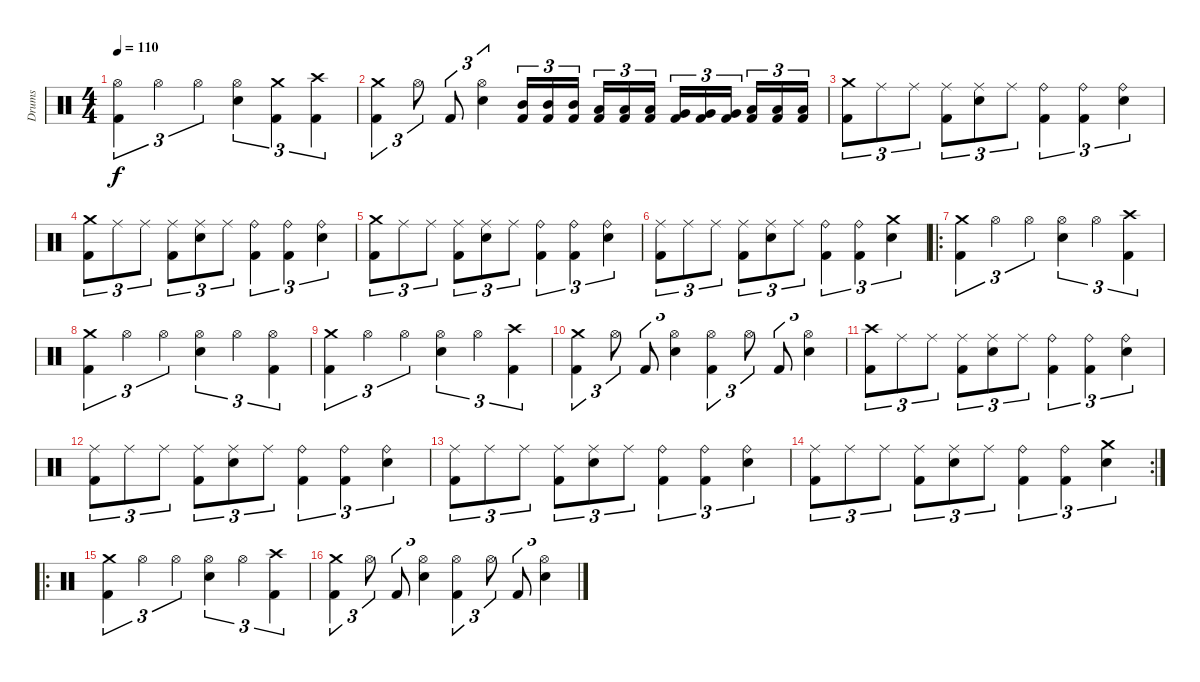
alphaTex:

\track ("Drums" "Drums") {instrument percussion}
\staff {score}
\articulation defaults
\ts (4 4)
\tempo 110
\clef neutral
\ks c
("Kick (hit) 2" "Hi-Hat (open)").4{tu (3 2) dy f} "Hi-Hat (open)".4{tu (3 2)} "Hi-Hat (open)".4{tu (3 2)} ("Electric Snare (hit)" "Hi-Hat (open)").4{tu (3 2)} ("Kick (hit) 2" "Crash medium (hit)").4{tu (3 2)} ("Kick (hit) 2" "Crash high (hit)").4{tu (3 2)} |
("Kick (hit) 2" "Crash medium (hit)").4{tu (3 2)} "Hi-Hat (open)".8{tu (3 2)} "Kick (hit) 2".8{tu (3 2)} ("Electric Snare (hit)" "Hi-Hat (open)").4{tu (3 2)} ("Kick (hit) 2" "Mid Tom (hit)").16{tu (3 2)} ("Kick (hit) 2" "Mid Tom (hit)").16{tu (3 2)} ("Kick (hit) 2" "Mid Tom (hit)").16{tu (3 2)} ("Kick (hit) 2" "Low Tom (hit)").16{tu (3 2)} ("Kick (hit) 2" "Low Tom (hit)").16{tu (3 2)} ("Kick (hit) 2" "Low Tom (hit)").16{tu (3 2)} ("Kick (hit) 2" "Very Low Tom (hit)").16{tu (3 2)} ("Kick (hit) 2" "Very Low Tom (hit)").16{tu (3 2)} ("Kick (hit) 2" "Very Low Tom (hit)").16{tu (3 2)} ("Kick (hit) 2" "Low Floor Tom (hit)").16{tu (3 2)} ("Kick (hit) 2" "Low Floor Tom (hit)").16{tu (3 2)} ("Kick (hit) 2" "Low Floor Tom (hit)").16{tu (3 2)} |
("Kick (hit) 2" "Crash medium (hit)").8{tu (3 2)} "Ride (middle)".8{tu (3 2)} "Ride (middle)".8{tu (3 2)} ("Kick (hit) 2" "Ride (middle)").8{tu (3 2)} ("Electric Snare (hit)" "Ride (middle)").8{tu (3 2)} "Ride (middle)".8{tu (3 2)} ("Kick (hit) 2" "Ride (bell)").4{tu (3 2)} ("Kick (hit) 2" "Ride (bell)").4{tu (3 2)} ("Electric Snare (hit)" "Ride (bell)").4{tu (3 2)} |
("Kick (hit) 2" "Crash medium (hit)").8{tu (3 2)} "Ride (middle)".8{tu (3 2)} "Ride (middle)".8{tu (3 2)} ("Kick (hit) 2" "Ride (middle)").8{tu (3 2)} ("Electric Snare (hit)" "Ride (middle)").8{tu (3 2)} "Ride (middle)".8{tu (3 2)} ("Kick (hit) 2" "Ride (bell)").4{tu (3 2)} ("Kick (hit) 2" "Ride (bell)").4{tu (3 2)} ("Electric Snare (hit)" "Ride (bell)").4{tu (3 2)} |
("Kick (hit) 2" "Crash medium (hit)").8{tu (3 2)} "Ride (middle)".8{tu (3 2)} "Ride (middle)".8{tu (3 2)} ("Kick (hit) 2" "Ride (middle)").8{tu (3 2)} ("Electric Snare (hit)" "Ride (middle)").8{tu (3 2)} "Ride (middle)".8{tu (3 2)} ("Kick (hit) 2" "Ride (bell)").4{tu (3 2)} ("Kick (hit) 2" "Ride (bell)").4{tu (3 2)} ("Electric Snare (hit)" "Ride (bell)").4{tu (3 2)} |
("Kick (hit) 2" "Ride (middle)").8{tu (3 2)} "Ride (middle)".8{tu (3 2)} "Ride (middle)".8{tu (3 2)} ("Kick (hit) 2" "Ride (middle)").8{tu (3 2)} ("Electric Snare (hit)" "Ride (middle)").8{tu (3 2)} "Ride (middle)".8{tu (3 2)} ("Kick (hit) 2" "Ride (bell)").4{tu (3 2)} ("Kick (hit) 2" "Ride (bell)").4{tu (3 2)} ("Snare (hit) 2" "Crash medium (hit)").4{tu (3 2)} |
\ro
("Kick (hit) 2" "Crash medium (hit)").4{tu (3 2)} "Hi-Hat (open)".4{tu (3 2)} "Hi-Hat (open)".4{tu (3 2)} ("Electric Snare (hit)" "Hi-Hat (open)").4{tu (3 2)} "Hi-Hat (open)".4{tu (3 2)} ("Kick (hit) 2" "Crash high (hit)").4{tu (3 2)} |
("Kick (hit) 2" "Crash medium (hit)").4{tu (3 2)} "Hi-Hat (open)".4{tu (3 2)} "Hi-Hat (open)".4{tu (3 2)} ("Electric Snare (hit)" "Hi-Hat (open)").4{tu (3 2)} "Hi-Hat (open)".4{tu (3 2)} ("Kick (hit) 2" "Hi-Hat (open)").4{tu (3 2)} |
("Kick (hit) 2" "Crash medium (hit)").4{tu (3 2)} "Hi-Hat (open)".4{tu (3 2)} "Hi-Hat (open)".4{tu (3 2)} ("Electric Snare (hit)" "Hi-Hat (open)").4{tu (3 2)} "Hi-Hat (open)".4{tu (3 2)} ("Kick (hit) 2" "Crash high (hit)").4{tu (3 2)} |
("Kick (hit) 2" "Crash medium (hit)").4{tu (3 2)} "Hi-Hat (open)".8{tu (3 2)} "Kick (hit) 2".8{tu (3 2)} ("Electric Snare (hit)" "Hi-Hat (open)").4{tu (3 2)} ("Kick (hit) 2" "Hi-Hat (open)").4{tu (3 2)} "Hi-Hat (open)".8{tu (3 2)} "Kick (hit) 2".8{tu (3 2)} ("Electric Snare (hit)" "Hi-Hat (open)").4{tu (3 2)} |
("Kick (hit) 2" "Crash high (hit)").8{tu (3 2)} "Ride (middle)".8{tu (3 2)} "Ride (middle)".8{tu (3 2)} ("Kick (hit) 2" "Ride (middle)").8{tu (3 2)} ("Electric Snare (hit)" "Ride (middle)").8{tu (3 2)} "Ride (middle)".8{tu (3 2)} ("Kick (hit) 2" "Ride (bell)").4{tu (3 2)} ("Kick (hit) 2" "Ride (bell)").4{tu (3 2)} ("Electric Snare (hit)" "Ride (bell)").4{tu (3 2)} |
("Kick (hit) 2" "Ride (middle)").8{tu (3 2)} "Ride (middle)".8{tu (3 2)} "Ride (middle)".8{tu (3 2)} ("Kick (hit) 2" "Ride (middle)").8{tu (3 2)} ("Electric Snare (hit)" "Ride (middle)").8{tu (3 2)} "Ride (middle)".8{tu (3 2)} ("Kick (hit) 2" "Ride (bell)").4{tu (3 2)} ("Kick (hit) 2" "Ride (bell)").4{tu (3 2)} ("Electric Snare (hit)" "Ride (bell)").4{tu (3 2)} |
("Kick (hit) 2" "Ride (middle)").8{tu (3 2)} "Ride (middle)".8{tu (3 2)} "Ride (middle)".8{tu (3 2)} ("Kick (hit) 2" "Ride (middle)").8{tu (3 2)} ("Electric Snare (hit)" "Ride (middle)").8{tu (3 2)} "Ride (middle)".8{tu (3 2)} ("Kick (hit) 2" "Ride (bell)").4{tu (3 2)} ("Kick (hit) 2" "Ride (bell)").4{tu (3 2)} ("Electric Snare (hit)" "Ride (bell)").4{tu (3 2)} |
\rc 2
("Kick (hit) 2" "Ride (middle)").8{tu (3 2)} "Ride (middle)".8{tu (3 2)} "Ride (middle)".8{tu (3 2)} ("Kick (hit) 2" "Ride (middle)").8{tu (3 2)} ("Electric Snare (hit)" "Ride (middle)").8{tu (3 2)} "Ride (middle)".8{tu (3 2)} ("Kick (hit) 2" "Ride (bell)").4{tu (3 2)} ("Kick (hit) 2" "Ride (bell)").4{tu (3 2)} ("Electric Snare (hit)" "Crash medium (hit)").4{tu (3 2)} |
\ro
("Kick (hit) 2" "Crash medium (hit)").4{tu (3 2)} "Hi-Hat (open)".4{tu (3 2)} "Hi-Hat (open)".4{tu (3 2)} ("Electric Snare (hit)" "Hi-Hat (open)").4{tu (3 2)} "Hi-Hat (open)".4{tu (3 2)} ("Kick (hit) 2" "Crash high (hit)").4{tu (3 2)} |
("Kick (hit) 2" "Crash medium (hit)").4{tu (3 2)} "Hi-Hat (open)".8{tu (3 2)} "Kick (hit) 2".8{tu (3 2)} ("Electric Snare (hit)" "Hi-Hat (open)").4{tu (3 2)} ("Kick (hit) 2" "Hi-Hat (open)").4{tu (3 2)} "Hi-Hat (open)".8{tu (3 2)} "Kick (hit) 2".8{tu (3 2)} ("Electric Snare (hit)" "Hi-Hat (open)").4{tu (3 2)}
